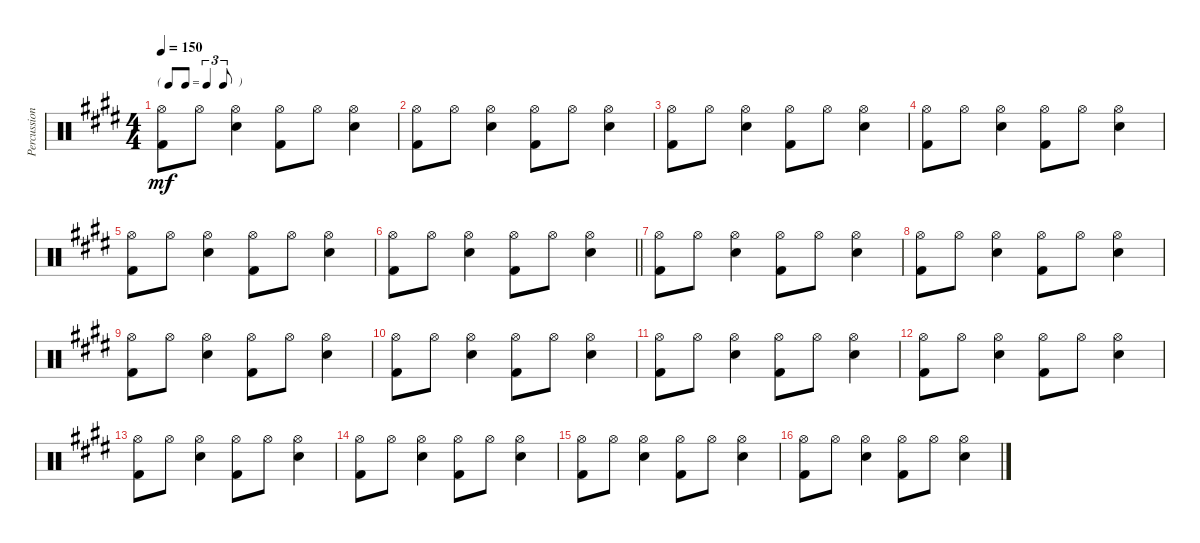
\track ("Percussion" "Percussion") {instrument percussion}
\staff {score}
\articulation defaults
\ts (4 4)
\tf triplet8th
\tempo 150
\clef neutral
\ks e
("Hi-Hat (open)" "Kick (hit) 2").8{dy mf} "Hi-Hat (open)".8 ("Hi-Hat (open)" "Snare (hit) 2").4 ("Hi-Hat (open)" "Kick (hit) 2").8 "Hi-Hat (open)".8 ("Hi-Hat (open)" "Snare (hit) 2").4 |
("Hi-Hat (open)" "Kick (hit) 2").8 "Hi-Hat (open)".8 ("Hi-Hat (open)" "Snare (hit) 2").4 ("Hi-Hat (open)" "Kick (hit) 2").8 "Hi-Hat (open)".8 ("Hi-Hat (open)" "Snare (hit) 2").4 |
("Hi-Hat (open)" "Kick (hit) 2").8 "Hi-Hat (open)".8 ("Hi-Hat (open)" "Snare (hit) 2").4 ("Hi-Hat (open)" "Kick (hit) 2").8 "Hi-Hat (open)".8 ("Hi-Hat (open)" "Snare (hit) 2").4 |
("Hi-Hat (open)" "Kick (hit) 2").8 "Hi-Hat (open)".8 ("Hi-Hat (open)" "Snare (hit) 2").4 ("Hi-Hat (open)" "Kick (hit) 2").8 "Hi-Hat (open)".8 ("Hi-Hat (open)" "Snare (hit) 2").4 |
("Hi-Hat (open)" "Kick (hit) 2").8 "Hi-Hat (open)".8 ("Hi-Hat (open)" "Snare (hit) 2").4 ("Hi-Hat (open)" "Kick (hit) 2").8 "Hi-Hat (open)".8 ("Hi-Hat (open)" "Snare (hit) 2").4 |
\barLineRight lightlight
("Hi-Hat (open)" "Kick (hit) 2").8 "Hi-Hat (open)".8 ("Hi-Hat (open)" "Snare (hit) 2").4 ("Hi-Hat (open)" "Kick (hit) 2").8 "Hi-Hat (open)".8 ("Hi-Hat (open)" "Snare (hit) 2").4 |
("Hi-Hat (open)" "Kick (hit) 2").8 "Hi-Hat (open)".8 ("Hi-Hat (open)" "Snare (hit) 2").4 ("Hi-Hat (open)" "Kick (hit) 2").8 "Hi-Hat (open)".8 ("Hi-Hat (open)" "Snare (hit) 2").4 |
("Hi-Hat (open)" "Kick (hit) 2").8 "Hi-Hat (open)".8 ("Hi-Hat (open)" "Snare (hit) 2").4 ("Hi-Hat (open)" "Kick (hit) 2").8 "Hi-Hat (open)".8 ("Hi-Hat (open)" "Snare (hit) 2").4 |
("Hi-Hat (open)" "Kick (hit) 2").8 "Hi-Hat (open)".8 ("Hi-Hat (open)" "Snare (hit) 2").4 ("Hi-Hat (open)" "Kick (hit) 2").8 "Hi-Hat (open)".8 ("Hi-Hat (open)" "Snare (hit) 2").4 |
("Hi-Hat (open)" "Kick (hit) 2").8 "Hi-Hat (open)".8 ("Hi-Hat (open)" "Snare (hit) 2").4 ("Hi-Hat (open)" "Kick (hit) 2").8 "Hi-Hat (open)".8 ("Hi-Hat (open)" "Snare (hit) 2").4 |
("Hi-Hat (open)" "Kick (hit) 2").8 "Hi-Hat (open)".8 ("Hi-Hat (open)" "Snare (hit) 2").4 ("Hi-Hat (open)" "Kick (hit) 2").8 "Hi-Hat (open)".8 ("Hi-Hat (open)" "Snare (hit) 2").4 |
("Hi-Hat (open)" "Kick (hit) 2").8 "Hi-Hat (open)".8 ("Hi-Hat (open)" "Snare (hit) 2").4 ("Hi-Hat (open)" "Kick (hit) 2").8 "Hi-Hat (open)".8 ("Hi-Hat (open)" "Snare (hit) 2").4 |
("Hi-Hat (open)" "Kick (hit) 2").8 "Hi-Hat (open)".8 ("Hi-Hat (open)" "Snare (hit) 2").4 ("Hi-Hat (open)" "Kick (hit) 2").8 "Hi-Hat (open)".8 ("Hi-Hat (open)" "Snare (hit) 2").4 |
("Hi-Hat (open)" "Kick (hit) 2").8 "Hi-Hat (open)".8 ("Hi-Hat (open)" "Snare (hit) 2").4 ("Hi-Hat (open)" "Kick (hit) 2").8 "Hi-Hat (open)".8 ("Hi-Hat (open)" "Snare (hit) 2").4 |
("Hi-Hat (open)" "Kick (hit) 2").8 "Hi-Hat (open)".8 ("Hi-Hat (open)" "Snare (hit) 2").4 ("Hi-Hat (open)" "Kick (hit) 2").8 "Hi-Hat (open)".8 ("Hi-Hat (open)" "Snare (hit) 2").4 |
("Hi-Hat (open)" "Kick (hit) 2").8 "Hi-Hat (open)".8 ("Hi-Hat (open)" "Snare (hit) 2").4 ("Hi-Hat (open)" "Kick (hit) 2").8 "Hi-Hat (open)".8 ("Hi-Hat (open)" "Snare (hit) 2").4
